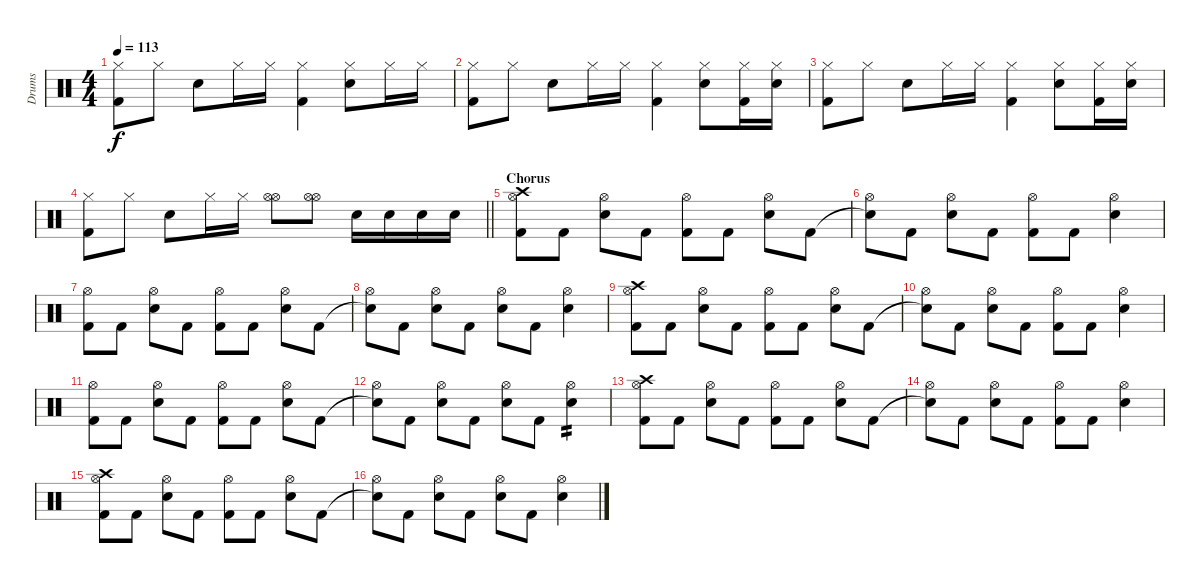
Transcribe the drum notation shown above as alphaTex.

\track ("Drums" "Drums") {instrument percussion}
\staff {score}
\articulation defaults
\ts (4 4)
\tempo 113
\clef neutral
\ks c
("Hi-Hat (closed)" "Kick (hit) 2").8{dy f} "Hi-Hat (closed)".8 "Electric Snare (hit)".8 "Hi-Hat (closed)".16 "Hi-Hat (closed)".16 ("Kick (hit) 2" "Hi-Hat (closed)").4 ("Electric Snare (hit)" "Hi-Hat (closed)").8 "Hi-Hat (closed)".16 "Hi-Hat (closed)".16 |
("Hi-Hat (closed)" "Kick (hit) 2").8 "Hi-Hat (closed)".8 "Electric Snare (hit)".8 "Hi-Hat (closed)".16 "Hi-Hat (closed)".16 ("Kick (hit) 2" "Hi-Hat (closed)").4 ("Electric Snare (hit)" "Hi-Hat (closed)").8 ("Hi-Hat (closed)" "Kick (hit) 2").16 ("Hi-Hat (closed)" "Electric Snare (hit)").16 |
("Hi-Hat (closed)" "Kick (hit) 2").8 "Hi-Hat (closed)".8 "Electric Snare (hit)".8 "Hi-Hat (closed)".16 "Hi-Hat (closed)".16 ("Kick (hit) 2" "Hi-Hat (closed)").4 ("Electric Snare (hit)" "Hi-Hat (closed)").8 ("Hi-Hat (closed)" "Kick (hit) 2").16 ("Hi-Hat (closed)" "Electric Snare (hit)").16 |
\barLineRight lightlight
("Hi-Hat (closed)" "Kick (hit) 2").8 "Hi-Hat (closed)".8 "Electric Snare (hit)".8 "Hi-Hat (closed)".16 "Hi-Hat (closed)".16 ("Hi-Hat (open)" "Hi-Hat (open)").8 ("Hi-Hat (open)" "Hi-Hat (open)").8 "Electric Snare (hit)".16 "Electric Snare (hit)".16 "Electric Snare (hit)".16 "Electric Snare (hit)".16 |
\section ("" "Chorus")
("Kick (hit) 2" "Hi-Hat (open)" "Crash high (hit)").8 "Kick (hit) 2".8 ("Electric Snare (hit)" "Hi-Hat (open)").8 "Kick (hit) 2".8 ("Kick (hit) 2" "Hi-Hat (open)").8 "Kick (hit) 2".8 ("Electric Snare (hit)" "Hi-Hat (open)").8 "Kick (hit) 2".8 |
("Snare (hit)"{t} "Hi-Hat (open)").8 "Kick (hit) 2".8 ("Electric Snare (hit)" "Hi-Hat (open)").8 "Kick (hit) 2".8 ("Kick (hit) 2" "Hi-Hat (open)").8 "Kick (hit) 2".8 ("Electric Snare (hit)" "Hi-Hat (open)").4 |
("Kick (hit) 2" "Hi-Hat (open)").8 "Kick (hit) 2".8 ("Electric Snare (hit)" "Hi-Hat (open)").8 "Kick (hit) 2".8 ("Kick (hit) 2" "Hi-Hat (open)").8 "Kick (hit) 2".8 ("Electric Snare (hit)" "Hi-Hat (open)").8 "Kick (hit) 2".8 |
("Snare (hit)"{t} "Hi-Hat (open)").8 "Kick (hit) 2".8 ("Electric Snare (hit)" "Hi-Hat (open)").8 "Kick (hit) 2".8 ("Electric Snare (hit)" "Hi-Hat (open)").8 "Kick (hit) 2".8 ("Electric Snare (hit)" "Hi-Hat (open)").4 |
("Kick (hit) 2" "Hi-Hat (open)" "Crash high (hit)").8 "Kick (hit) 2".8 ("Electric Snare (hit)" "Hi-Hat (open)").8 "Kick (hit) 2".8 ("Kick (hit) 2" "Hi-Hat (open)").8 "Kick (hit) 2".8 ("Electric Snare (hit)" "Hi-Hat (open)").8 "Kick (hit) 2".8 |
("Snare (hit)"{t} "Hi-Hat (open)").8 "Kick (hit) 2".8 ("Electric Snare (hit)" "Hi-Hat (open)").8 "Kick (hit) 2".8 ("Kick (hit) 2" "Hi-Hat (open)").8 "Kick (hit) 2".8 ("Electric Snare (hit)" "Hi-Hat (open)").4 |
("Kick (hit) 2" "Hi-Hat (open)").8 "Kick (hit) 2".8 ("Electric Snare (hit)" "Hi-Hat (open)").8 "Kick (hit) 2".8 ("Kick (hit) 2" "Hi-Hat (open)").8 "Kick (hit) 2".8 ("Electric Snare (hit)" "Hi-Hat (open)").8 "Kick (hit) 2".8 |
("Snare (hit)"{t} "Hi-Hat (open)").8 "Kick (hit) 2".8 ("Electric Snare (hit)" "Hi-Hat (open)").8 "Kick (hit) 2".8 ("Electric Snare (hit)" "Hi-Hat (open)").8 "Kick (hit) 2".8 ("Electric Snare (hit)" "Hi-Hat (open)").4{tp 2} |
("Kick (hit) 2" "Hi-Hat (open)" "Crash high (hit)").8 "Kick (hit) 2".8 ("Electric Snare (hit)" "Hi-Hat (open)").8 "Kick (hit) 2".8 ("Kick (hit) 2" "Hi-Hat (open)").8 "Kick (hit) 2".8 ("Electric Snare (hit)" "Hi-Hat (open)").8 "Kick (hit) 2".8 |
("Snare (hit)"{t} "Hi-Hat (open)").8 "Kick (hit) 2".8 ("Electric Snare (hit)" "Hi-Hat (open)").8 "Kick (hit) 2".8 ("Kick (hit) 2" "Hi-Hat (open)").8 "Kick (hit) 2".8 ("Electric Snare (hit)" "Hi-Hat (open)").4 |
("Kick (hit) 2" "Hi-Hat (open)" "Crash high (hit)").8 "Kick (hit) 2".8 ("Electric Snare (hit)" "Hi-Hat (open)").8 "Kick (hit) 2".8 ("Kick (hit) 2" "Hi-Hat (open)").8 "Kick (hit) 2".8 ("Electric Snare (hit)" "Hi-Hat (open)").8 "Kick (hit) 2".8 |
("Snare (hit)"{t} "Hi-Hat (open)").8 "Kick (hit) 2".8 ("Electric Snare (hit)" "Hi-Hat (open)").8 "Kick (hit) 2".8 ("Electric Snare (hit)" "Hi-Hat (open)").8 "Kick (hit) 2".8 ("Electric Snare (hit)" "Hi-Hat (open)").4
